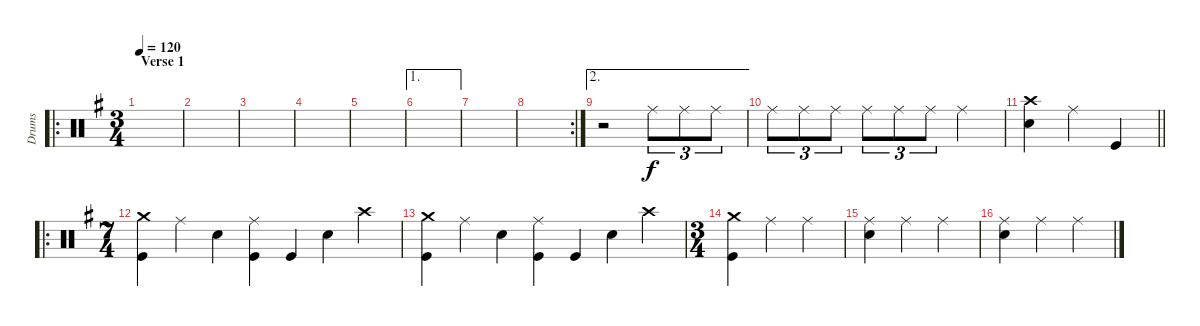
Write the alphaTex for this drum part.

\track ("Drums" "Drums") {instrument percussion}
\staff {score}
\articulation defaults
\ro
\ts (3 4)
\section ("" "Verse 1")
\tempo 120
\clef neutral
\ks g
|
|
|
|
|
\ae 1
|
|
\rc 2
|
\ae 2
r.2 "Ride (middle)".8{tu (3 2)} "Ride (middle)".8{tu (3 2)} "Ride (middle)".8{tu (3 2)} |
"Ride (middle)".8{tu (3 2)} "Ride (middle)".8{tu (3 2)} "Ride (middle)".8{tu (3 2)} "Ride (middle)".8{tu (3 2)} "Ride (middle)".8{tu (3 2)} "Ride (middle)".8{tu (3 2)} "Ride (middle)".4 |
\barLineRight lightlight
("Crash high (hit)" "Snare (hit) 2").4 "Ride (middle)".4 "Kick (hit)".4 |
\ro
\ts (7 4)
("Crash medium (hit)" "Kick (hit)").4 "Ride (middle)".4 "Snare (hit) 2".4 ("Ride (middle)" "Kick (hit)").4 "Kick (hit)".4 "Snare (hit) 2".4 "Crash high (hit)".4 |
("Crash medium (hit)" "Kick (hit)").4 "Ride (middle)".4 "Snare (hit) 2".4 ("Ride (middle)" "Kick (hit)").4 "Kick (hit)".4 "Snare (hit) 2".4 "Crash high (hit)".4 |
\ts (3 4)
("Crash medium (hit)" "Kick (hit)").4 "Ride (middle)".4 "Ride (middle)".4 |
("Ride (middle)" "Snare (hit) 2").4 "Ride (middle)".4 "Ride (middle)".4 |
("Ride (middle)" "Snare (hit) 2").4 "Ride (middle)".4 "Ride (middle)".4
